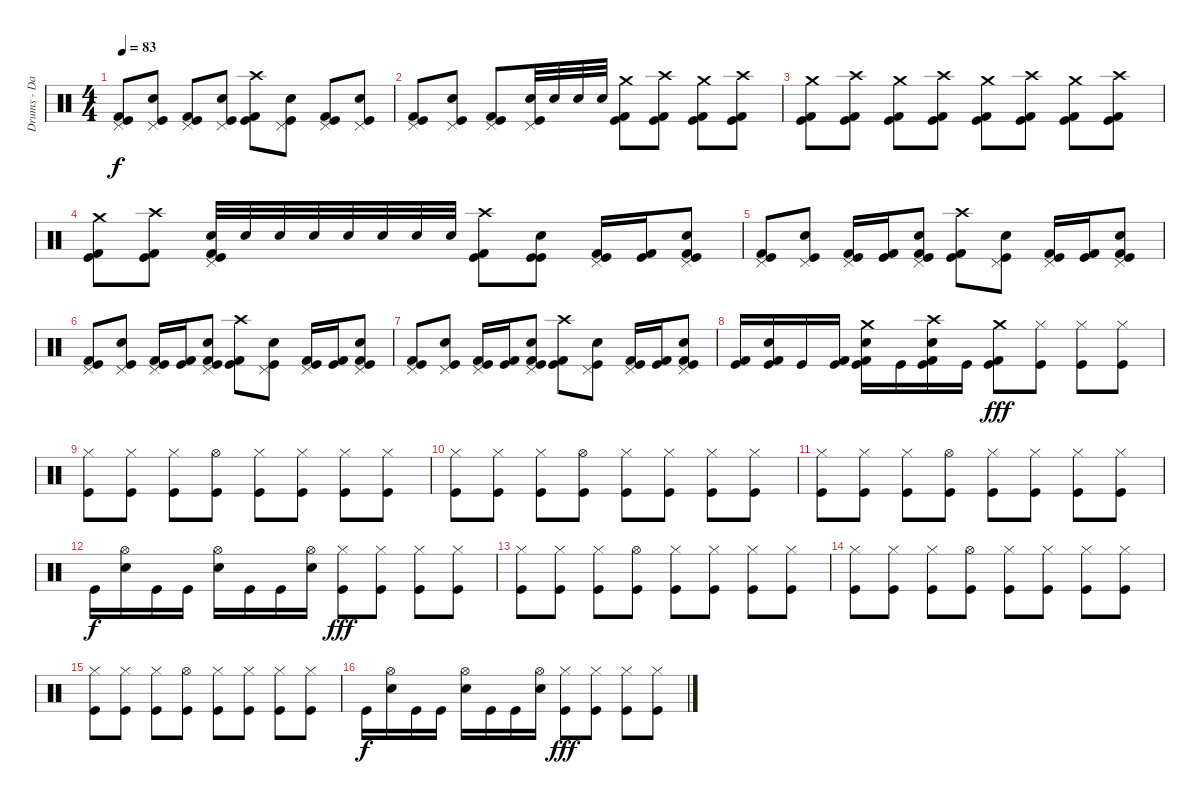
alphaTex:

\track ("Drums - Daniel Zimmermann" "Drums - Da") {instrument percussion}
\staff {score}
\articulation defaults
\ts (4 4)
\tempo 83
\clef neutral
\ks c
("Kick (hit)" "Kick (hit) 2" "Pedal Hi-Hat (hit)").8{dy f} ("Kick (hit)" "Electric Snare (hit)" "Pedal Hi-Hat (hit)").8 ("Kick (hit)" "Kick (hit) 2" "Pedal Hi-Hat (hit)").8 ("Kick (hit)" "Electric Snare (hit)" "Pedal Hi-Hat (hit)").8 ("Kick (hit)" "Kick (hit) 2" "Crash high (hit)").8 ("Kick (hit)" "Electric Snare (hit)" "Pedal Hi-Hat (hit)").8 ("Kick (hit)" "Kick (hit) 2" "Pedal Hi-Hat (hit)").8 ("Kick (hit)" "Electric Snare (hit)" "Pedal Hi-Hat (hit)").8 |
("Kick (hit)" "Kick (hit) 2" "Pedal Hi-Hat (hit)").8 ("Kick (hit)" "Electric Snare (hit)" "Pedal Hi-Hat (hit)").8 ("Kick (hit)" "Kick (hit) 2" "Pedal Hi-Hat (hit)").8 ("Kick (hit)" "Electric Snare (hit)" "Pedal Hi-Hat (hit)").32 "Electric Snare (hit)".32 "Electric Snare (hit)".32 "Electric Snare (hit)".32 ("Kick (hit)" "Kick (hit) 2" "Crash medium (hit)").8 ("Kick (hit)" "Kick (hit) 2" "Crash high (hit)").8 ("Kick (hit)" "Kick (hit) 2" "Crash medium (hit)").8 ("Kick (hit)" "Kick (hit) 2" "Crash high (hit)").8 |
("Kick (hit)" "Kick (hit) 2" "Crash medium (hit)").8 ("Kick (hit)" "Kick (hit) 2" "Crash high (hit)").8 ("Kick (hit)" "Kick (hit) 2" "Crash medium (hit)").8 ("Kick (hit)" "Kick (hit) 2" "Crash high (hit)").8 ("Kick (hit)" "Kick (hit) 2" "Crash medium (hit)").8 ("Kick (hit)" "Kick (hit) 2" "Crash high (hit)").8 ("Kick (hit)" "Kick (hit) 2" "Crash medium (hit)").8 ("Kick (hit)" "Kick (hit) 2" "Crash high (hit)").8 |
("Kick (hit)" "Kick (hit) 2" "Crash medium (hit)").8 ("Kick (hit)" "Kick (hit) 2" "Crash high (hit)").8 ("Kick (hit)" "Kick (hit) 2" "Electric Snare (hit)" "Pedal Hi-Hat (hit)").32 "Electric Snare (hit)".32 "Electric Snare (hit)".32 "Electric Snare (hit)".32 "Electric Snare (hit)".32 "Electric Snare (hit)".32 "Electric Snare (hit)".32 "Electric Snare (hit)".32 ("Kick (hit)" "Kick (hit) 2" "Crash high (hit)").8 ("Kick (hit)" "Electric Snare (hit)" "Kick (hit)").8 ("Kick (hit)" "Kick (hit) 2" "Pedal Hi-Hat (hit)").16 ("Kick (hit)" "Kick (hit) 2").16 ("Kick (hit)" "Kick (hit) 2" "Electric Snare (hit)" "Pedal Hi-Hat (hit)").8 |
("Kick (hit)" "Kick (hit) 2" "Pedal Hi-Hat (hit)").8 ("Kick (hit)" "Electric Snare (hit)" "Pedal Hi-Hat (hit)").8 ("Kick (hit)" "Kick (hit) 2" "Pedal Hi-Hat (hit)").16 ("Kick (hit)" "Kick (hit) 2").16 ("Kick (hit)" "Kick (hit) 2" "Electric Snare (hit)" "Pedal Hi-Hat (hit)").8 ("Kick (hit)" "Kick (hit) 2" "Crash high (hit)").8 ("Kick (hit)" "Electric Snare (hit)" "Pedal Hi-Hat (hit)").8 ("Kick (hit)" "Kick (hit) 2" "Pedal Hi-Hat (hit)").16 ("Kick (hit)" "Kick (hit) 2").16 ("Kick (hit)" "Kick (hit) 2" "Electric Snare (hit)" "Pedal Hi-Hat (hit)").8 |
("Kick (hit)" "Kick (hit) 2" "Pedal Hi-Hat (hit)").8 ("Kick (hit)" "Electric Snare (hit)" "Pedal Hi-Hat (hit)").8 ("Kick (hit)" "Kick (hit) 2" "Pedal Hi-Hat (hit)").16 ("Kick (hit)" "Kick (hit) 2").16 ("Kick (hit)" "Kick (hit) 2" "Electric Snare (hit)" "Pedal Hi-Hat (hit)").8 ("Kick (hit)" "Kick (hit) 2" "Crash high (hit)").8 ("Kick (hit)" "Electric Snare (hit)" "Pedal Hi-Hat (hit)").8 ("Kick (hit)" "Kick (hit) 2" "Pedal Hi-Hat (hit)").16 ("Kick (hit)" "Kick (hit) 2").16 ("Kick (hit)" "Kick (hit) 2" "Electric Snare (hit)" "Pedal Hi-Hat (hit)").8 |
("Kick (hit)" "Kick (hit) 2" "Pedal Hi-Hat (hit)").8 ("Kick (hit)" "Electric Snare (hit)" "Pedal Hi-Hat (hit)").8 ("Kick (hit)" "Kick (hit) 2" "Pedal Hi-Hat (hit)").16 ("Kick (hit)" "Kick (hit) 2").16 ("Kick (hit)" "Kick (hit) 2" "Electric Snare (hit)" "Pedal Hi-Hat (hit)").8 ("Kick (hit)" "Kick (hit) 2" "Crash high (hit)").8 ("Kick (hit)" "Electric Snare (hit)" "Pedal Hi-Hat (hit)").8 ("Kick (hit)" "Kick (hit) 2" "Pedal Hi-Hat (hit)").16 ("Kick (hit)" "Kick (hit) 2").16 ("Kick (hit)" "Kick (hit) 2" "Electric Snare (hit)" "Pedal Hi-Hat (hit)").8 |
("Kick (hit)" "Kick (hit) 2").16 ("Kick (hit)" "Kick (hit) 2" "Electric Snare (hit)").16 "Kick (hit)".16 ("Kick (hit)" "Kick (hit) 2").16 ("Kick (hit)" "Kick (hit) 2" "Electric Snare (hit)" "Crash medium (hit)").16 "Kick (hit)".16 ("Kick (hit)" "Kick (hit) 2" "Electric Snare (hit)" "Crash high (hit)").16 "Kick (hit)".16 ("Kick (hit)" "Kick (hit) 2" "Crash medium (hit)").8{dy fff} ("Kick (hit)" "Hi-Hat (closed)").8 ("Kick (hit)" "Hi-Hat (closed)").8 ("Kick (hit)" "Hi-Hat (closed)").8 |
("Kick (hit)" "Hi-Hat (closed)").8 ("Kick (hit)" "Hi-Hat (closed)").8 ("Kick (hit)" "Hi-Hat (closed)").8 ("Kick (hit)" "Hi-Hat (open)").8 ("Kick (hit)" "Hi-Hat (closed)").8 ("Kick (hit)" "Hi-Hat (closed)").8 ("Kick (hit)" "Hi-Hat (closed)").8 ("Kick (hit)" "Hi-Hat (closed)").8 |
("Kick (hit)" "Hi-Hat (closed)").8 ("Kick (hit)" "Hi-Hat (closed)").8 ("Kick (hit)" "Hi-Hat (closed)").8 ("Kick (hit)" "Hi-Hat (open)").8 ("Kick (hit)" "Hi-Hat (closed)").8 ("Kick (hit)" "Hi-Hat (closed)").8 ("Kick (hit)" "Hi-Hat (closed)").8 ("Kick (hit)" "Hi-Hat (closed)").8 |
("Kick (hit)" "Hi-Hat (closed)").8 ("Kick (hit)" "Hi-Hat (closed)").8 ("Kick (hit)" "Hi-Hat (closed)").8 ("Kick (hit)" "Hi-Hat (open)").8 ("Kick (hit)" "Hi-Hat (closed)").8 ("Kick (hit)" "Hi-Hat (closed)").8 ("Kick (hit)" "Hi-Hat (closed)").8 ("Kick (hit)" "Hi-Hat (closed)").8 |
"Kick (hit)".16{dy f} ("Electric Snare (hit)" "Hi-Hat (open)").16 "Kick (hit)".16 "Kick (hit)".16 ("Electric Snare (hit)" "Hi-Hat (open)").16 "Kick (hit)".16 "Kick (hit)".16 ("Electric Snare (hit)" "Hi-Hat (open)").16 ("Kick (hit)" "Hi-Hat (closed)").8{dy fff} ("Kick (hit)" "Hi-Hat (closed)").8 ("Kick (hit)" "Hi-Hat (closed)").8 ("Kick (hit)" "Hi-Hat (closed)").8 |
("Kick (hit)" "Hi-Hat (closed)").8 ("Kick (hit)" "Hi-Hat (closed)").8 ("Kick (hit)" "Hi-Hat (closed)").8 ("Kick (hit)" "Hi-Hat (open)").8 ("Kick (hit)" "Hi-Hat (closed)").8 ("Kick (hit)" "Hi-Hat (closed)").8 ("Kick (hit)" "Hi-Hat (closed)").8 ("Kick (hit)" "Hi-Hat (closed)").8 |
("Kick (hit)" "Hi-Hat (closed)").8 ("Kick (hit)" "Hi-Hat (closed)").8 ("Kick (hit)" "Hi-Hat (closed)").8 ("Kick (hit)" "Hi-Hat (open)").8 ("Kick (hit)" "Hi-Hat (closed)").8 ("Kick (hit)" "Hi-Hat (closed)").8 ("Kick (hit)" "Hi-Hat (closed)").8 ("Kick (hit)" "Hi-Hat (closed)").8 |
("Kick (hit)" "Hi-Hat (closed)").8 ("Kick (hit)" "Hi-Hat (closed)").8 ("Kick (hit)" "Hi-Hat (closed)").8 ("Kick (hit)" "Hi-Hat (open)").8 ("Kick (hit)" "Hi-Hat (closed)").8 ("Kick (hit)" "Hi-Hat (closed)").8 ("Kick (hit)" "Hi-Hat (closed)").8 ("Kick (hit)" "Hi-Hat (closed)").8 |
"Kick (hit)".16{dy f} ("Electric Snare (hit)" "Hi-Hat (open)").16 "Kick (hit)".16 "Kick (hit)".16 ("Electric Snare (hit)" "Hi-Hat (open)").16 "Kick (hit)".16 "Kick (hit)".16 ("Electric Snare (hit)" "Hi-Hat (open)").16 ("Kick (hit)" "Hi-Hat (closed)").8{dy fff} ("Kick (hit)" "Hi-Hat (closed)").8 ("Kick (hit)" "Hi-Hat (closed)").8 ("Kick (hit)" "Hi-Hat (closed)").8
